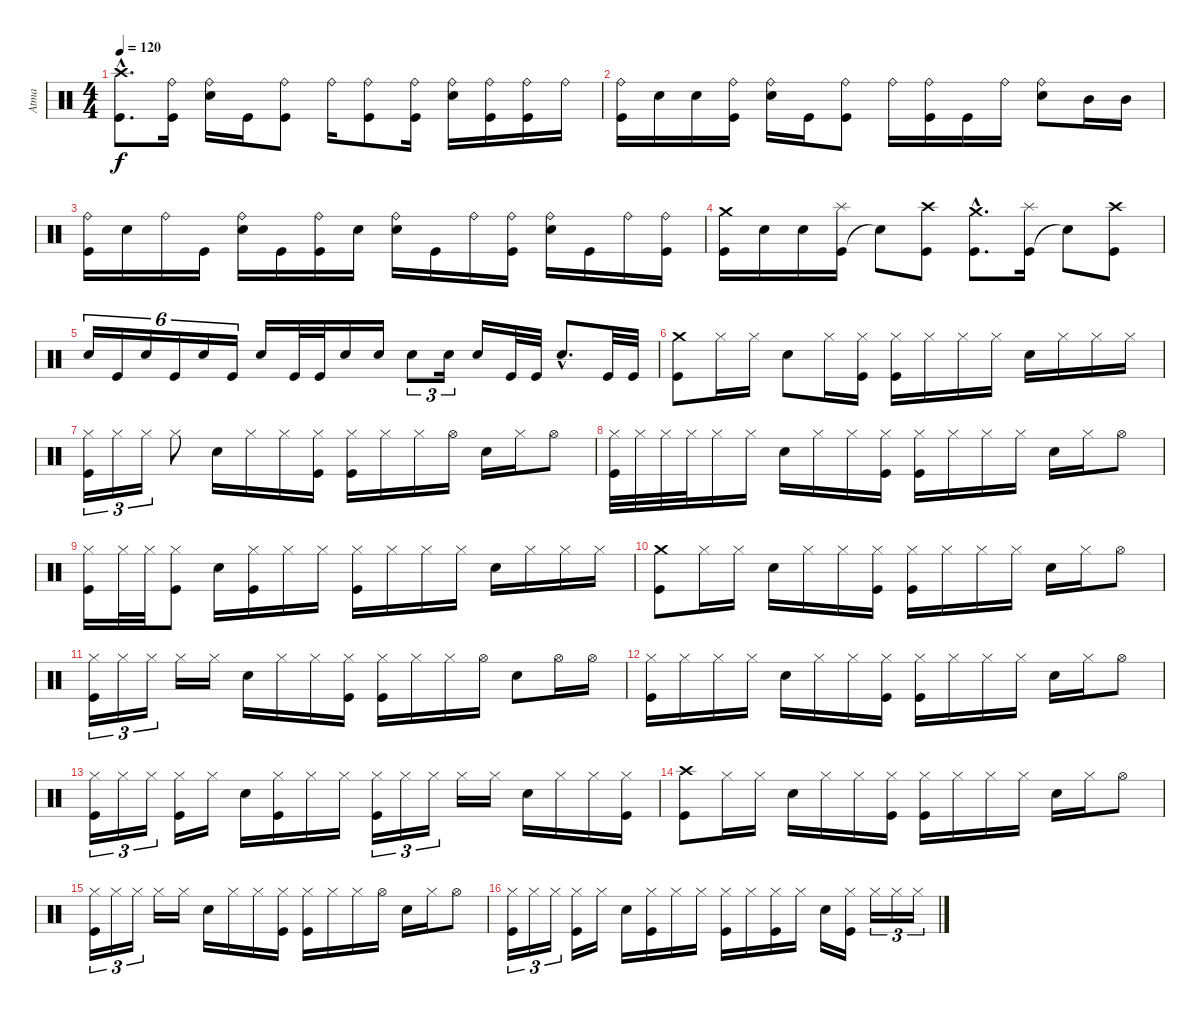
\track ("Atma" "Atma") {instrument percussion}
\staff {score}
\articulation defaults
\ts (4 4)
\tempo 120
\clef neutral
\ks c
("Kick (hit)"{hac} "Crash high (hit)"{hac}).8{d dy f} ("Kick (hit)" "Ride (bell)").16 ("Snare (hit) 2" "Ride (bell)").16 "Kick (hit)".16 ("Kick (hit)" "Ride (bell)").8 "Ride (bell)".16 ("Kick (hit)" "Ride (bell)").8 ("Kick (hit)" "Ride (bell)").16 ("Snare (hit) 2" "Ride (bell)").16 ("Kick (hit)" "Ride (bell)").16 ("Kick (hit)" "Ride (bell)").16 "Ride (bell)".16 |
("Kick (hit)" "Ride (bell)").16 "Snare (hit) 2".16 "Snare (hit) 2".16 ("Kick (hit)" "Ride (bell)").16 ("Snare (hit) 2" "Ride (bell)").16 "Kick (hit)".16 ("Kick (hit)" "Ride (bell)").8 "Ride (bell)".16 ("Kick (hit)" "Ride (bell)").16 "Kick (hit)".16 "Ride (bell)".16 ("Snare (hit) 2" "Ride (bell)").8 "Mid Tom (hit)".16 "Mid Tom (hit)".16 |
("Kick (hit)" "Ride (bell)").16 "Snare (hit) 2".16 "Ride (bell)".16 "Kick (hit)".16 ("Snare (hit) 2" "Ride (bell)").16 "Kick (hit)".16 ("Kick (hit)" "Ride (bell)").16 "Snare (hit) 2".16 ("Snare (hit) 2" "Ride (bell)").16 "Kick (hit)".16 "Ride (bell)".16 ("Kick (hit)" "Ride (bell)").16 ("Snare (hit) 2" "Ride (bell)").16 "Kick (hit)".16 "Ride (bell)".16 ("Kick (hit)" "Ride (bell)").16 |
("Kick (hit)" "Crash medium (hit)").16 "Snare (hit) 2".16 "Snare (hit) 2".16 ("Kick (hit)" "Splash (hit)").16 "Snare (hit)"{t}.8 ("Kick (hit)" "Crash high (hit)").8 ("Kick (hit)"{hac} "Crash medium (hit)"{hac}).8{d} ("Kick (hit)" "Splash (hit)").16 "Snare (hit)"{t}.8 ("Kick (hit)" "Crash high (hit)").8 |
"Snare (hit) 2".16{tu (6 4)} "Kick (hit)".16{tu (6 4)} "Snare (hit) 2".16{tu (6 4)} "Kick (hit)".16{tu (6 4)} "Snare (hit) 2".16{tu (6 4)} "Kick (hit)".16{tu (6 4)} "Snare (hit) 2".16 "Kick (hit)".32 "Kick (hit)".32 "Snare (hit) 2".16 "Snare (hit) 2".16 "Snare (hit) 2".8{tu (3 2)} "Snare (hit) 2".16{tu (3 2)} "Snare (hit) 2".16 "Kick (hit)".32 "Kick (hit)".32 "Snare (hit) 2"{hac}.8{d} "Kick (hit)".32 "Kick (hit)".32 |
("Kick (hit)" "Crash medium (hit)").8 "Hi-Hat (closed)".16 "Hi-Hat (closed)".16 "Snare (hit) 2".8 "Hi-Hat (closed)".16 ("Kick (hit)" "Hi-Hat (closed)").16 ("Kick (hit)" "Hi-Hat (closed)").16 "Hi-Hat (closed)".16 "Hi-Hat (closed)".16 "Hi-Hat (closed)".16 "Snare (hit) 2".16 "Hi-Hat (closed)".16 "Hi-Hat (closed)".16 "Hi-Hat (closed)".16 |
("Kick (hit)" "Hi-Hat (closed)").16{tu (3 2)} "Hi-Hat (closed)".16{tu (3 2)} "Hi-Hat (closed)".16{tu (3 2)} "Hi-Hat (closed)".8 "Snare (hit) 2".16 "Hi-Hat (closed)".16 "Hi-Hat (closed)".16 ("Kick (hit)" "Hi-Hat (closed)").16 ("Kick (hit)" "Hi-Hat (closed)").16 "Hi-Hat (closed)".16 "Hi-Hat (closed)".16 "Hi-Hat (open)".16 "Snare (hit) 2".16 "Hi-Hat (closed)".16 "Hi-Hat (open)".8 |
("Kick (hit)" "Hi-Hat (closed)").32 "Hi-Hat (closed)".32 "Hi-Hat (closed)".32 "Hi-Hat (closed)".32 "Hi-Hat (closed)".16 "Hi-Hat (closed)".16 "Snare (hit) 2".16 "Hi-Hat (closed)".16 "Hi-Hat (closed)".16 ("Kick (hit)" "Hi-Hat (closed)").16 ("Kick (hit)" "Hi-Hat (closed)").16 "Hi-Hat (closed)".16 "Hi-Hat (closed)".16 "Hi-Hat (closed)".16 "Snare (hit) 2".16 "Hi-Hat (closed)".16 "Hi-Hat (open)".8 |
("Kick (hit)" "Hi-Hat (closed)").16 "Hi-Hat (closed)".32 "Hi-Hat (closed)".32 ("Kick (hit)" "Hi-Hat (closed)").8 "Snare (hit) 2".16 ("Kick (hit)" "Hi-Hat (closed)").16 "Hi-Hat (closed)".16 "Hi-Hat (closed)".16 ("Kick (hit)" "Hi-Hat (closed)").16 "Hi-Hat (closed)".16 "Hi-Hat (closed)".16 "Hi-Hat (closed)".16 "Snare (hit) 2".16 "Hi-Hat (closed)".16 "Hi-Hat (closed)".16 "Hi-Hat (closed)".16 |
("Kick (hit)" "Crash medium (hit)").8 "Hi-Hat (closed)".16 "Hi-Hat (closed)".16 "Snare (hit) 2".16 "Hi-Hat (closed)".16 "Hi-Hat (closed)".16 ("Kick (hit)" "Hi-Hat (closed)").16 ("Kick (hit)" "Hi-Hat (closed)").16 "Hi-Hat (closed)".16 "Hi-Hat (closed)".16 "Hi-Hat (closed)".16 "Snare (hit) 2".16 "Hi-Hat (closed)".16 "Hi-Hat (open)".8 |
("Kick (hit)" "Hi-Hat (closed)").16{tu (3 2)} "Hi-Hat (closed)".16{tu (3 2)} "Hi-Hat (closed)".16{tu (3 2)} "Hi-Hat (closed)".16 "Hi-Hat (closed)".16 "Snare (hit) 2".16 "Hi-Hat (closed)".16 "Hi-Hat (closed)".16 ("Kick (hit)" "Hi-Hat (closed)").16 ("Kick (hit)" "Hi-Hat (closed)").16 "Hi-Hat (closed)".16 "Hi-Hat (closed)".16 "Hi-Hat (open)".16 "Snare (hit) 2".8 "Hi-Hat (open)".16 "Hi-Hat (open)".16 |
("Kick (hit)" "Hi-Hat (closed)").16 "Hi-Hat (closed)".16 "Hi-Hat (closed)".16 "Hi-Hat (closed)".16 "Snare (hit) 2".16 "Hi-Hat (closed)".16 "Hi-Hat (closed)".16 ("Kick (hit)" "Hi-Hat (closed)").16 ("Kick (hit)" "Hi-Hat (closed)").16 "Hi-Hat (closed)".16 "Hi-Hat (closed)".16 "Hi-Hat (closed)".16 "Snare (hit) 2".16 "Hi-Hat (closed)".16 "Hi-Hat (open)".8 |
("Kick (hit)" "Hi-Hat (closed)").16{tu (3 2)} "Hi-Hat (closed)".16{tu (3 2)} "Hi-Hat (closed)".16{tu (3 2)} ("Kick (hit)" "Hi-Hat (closed)").16 "Hi-Hat (closed)".16 "Snare (hit) 2".16 ("Kick (hit)" "Hi-Hat (closed)").16 "Hi-Hat (closed)".16 "Hi-Hat (closed)".16 ("Kick (hit)" "Hi-Hat (closed)").16{tu (3 2)} "Hi-Hat (closed)".16{tu (3 2)} "Hi-Hat (closed)".16{tu (3 2)} "Hi-Hat (closed)".16 "Hi-Hat (closed)".16 "Snare (hit) 2".16 "Hi-Hat (closed)".16 "Hi-Hat (closed)".16 ("Kick (hit)" "Hi-Hat (closed)").16 |
("Kick (hit)" "Crash high (hit)").8 "Hi-Hat (closed)".16 "Hi-Hat (closed)".16 "Snare (hit) 2".16 "Hi-Hat (closed)".16 "Hi-Hat (closed)".16 ("Kick (hit)" "Hi-Hat (closed)").16 ("Kick (hit)" "Hi-Hat (closed)").16 "Hi-Hat (closed)".16 "Hi-Hat (closed)".16 "Hi-Hat (closed)".16 "Snare (hit) 2".16 "Hi-Hat (closed)".16 "Hi-Hat (open)".8 |
("Kick (hit)" "Hi-Hat (closed)").16{tu (3 2)} "Hi-Hat (closed)".16{tu (3 2)} "Hi-Hat (closed)".16{tu (3 2)} "Hi-Hat (closed)".16 "Hi-Hat (closed)".16 "Snare (hit) 2".16 "Hi-Hat (closed)".16 "Hi-Hat (closed)".16 ("Kick (hit)" "Hi-Hat (closed)").16 ("Kick (hit)" "Hi-Hat (closed)").16 "Hi-Hat (closed)".16 "Hi-Hat (closed)".16 "Hi-Hat (open)".16 "Snare (hit) 2".16 "Hi-Hat (closed)".16 "Hi-Hat (open)".8 |
("Kick (hit)" "Hi-Hat (closed)").16{tu (3 2)} "Hi-Hat (closed)".16{tu (3 2)} "Hi-Hat (closed)".16{tu (3 2)} ("Kick (hit)" "Hi-Hat (closed)").16 "Hi-Hat (closed)".16 "Snare (hit) 2".16 ("Kick (hit)" "Hi-Hat (closed)").16 "Hi-Hat (closed)".16 "Hi-Hat (closed)".16 ("Kick (hit)" "Hi-Hat (closed)").16 "Hi-Hat (closed)".16 ("Kick (hit)" "Hi-Hat (closed)").16 "Hi-Hat (closed)".16 "Snare (hit) 2".16 ("Kick (hit)" "Hi-Hat (closed)").16 "Hi-Hat (closed)".16{tu (3 2)} "Hi-Hat (closed)".16{tu (3 2)} "Hi-Hat (closed)".16{tu (3 2)}
